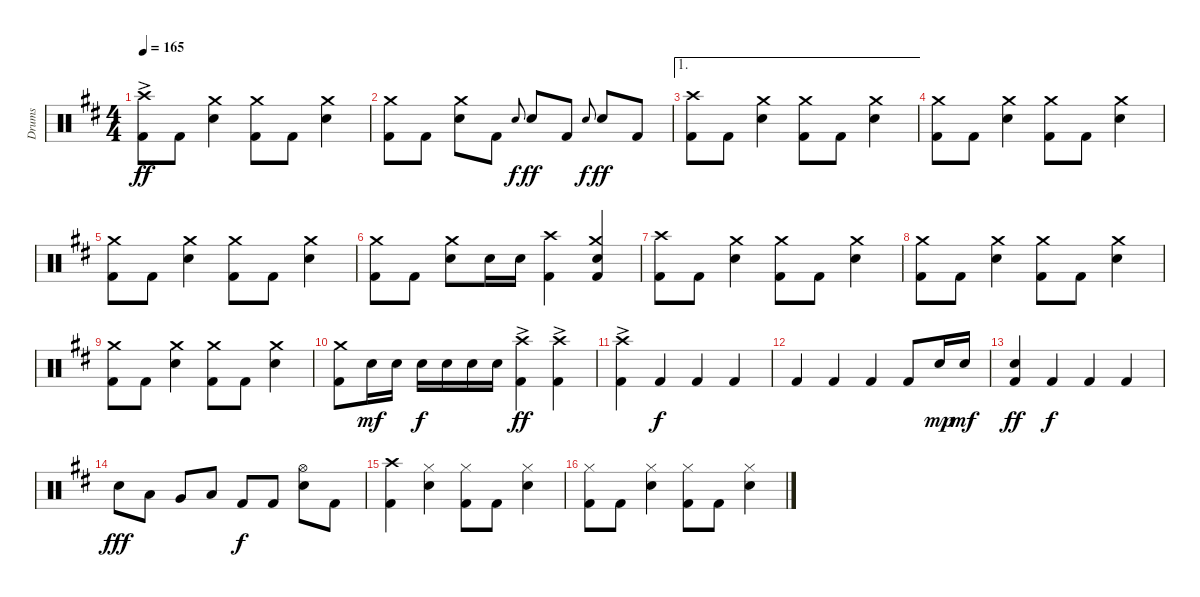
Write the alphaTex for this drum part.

\track ("Drums" "Drums") {instrument percussion}
\staff {score}
\articulation defaults
\ts (4 4)
\tempo 165
\clef neutral
\ks d
("Crash high (hit)"{ac} "Kick (hit) 2").8{dy ff} "Kick (hit) 2".8 ("Crash medium (hit)" "Electric Snare (hit)").4 ("Crash medium (hit)" "Kick (hit) 2").8 "Kick (hit) 2".8 ("Crash medium (hit)" "Electric Snare (hit)").4 |
("Crash medium (hit)" "Kick (hit) 2").8 "Kick (hit) 2".8 ("Crash medium (hit)" "Electric Snare (hit)").8 "Kick (hit) 2".8 "Electric Snare (hit)".8{gr onbeat dy f} "Electric Snare (hit)".8{dy ff} "Kick (hit) 2".8 "Electric Snare (hit)".8{gr onbeat dy f} "Electric Snare (hit)".8{dy ff} "Kick (hit) 2".8 |
\ae 1
("Crash high (hit)" "Kick (hit) 2").8 "Kick (hit) 2".8 ("Crash medium (hit)" "Electric Snare (hit)").4 ("Crash medium (hit)" "Kick (hit) 2").8 "Kick (hit) 2".8 ("Crash medium (hit)" "Electric Snare (hit)").4 |
("Crash medium (hit)" "Kick (hit) 2").8 "Kick (hit) 2".8 ("Crash medium (hit)" "Electric Snare (hit)").4 ("Crash medium (hit)" "Kick (hit) 2").8 "Kick (hit) 2".8 ("Crash medium (hit)" "Electric Snare (hit)").4 |
("Crash medium (hit)" "Kick (hit) 2").8 "Kick (hit) 2".8 ("Crash medium (hit)" "Electric Snare (hit)").4 ("Crash medium (hit)" "Kick (hit) 2").8 "Kick (hit) 2".8 ("Crash medium (hit)" "Electric Snare (hit)").4 |
("Crash medium (hit)" "Kick (hit) 2").8 "Kick (hit) 2".8 ("Crash medium (hit)" "Electric Snare (hit)").8 "Electric Snare (hit)".16 "Electric Snare (hit)".16 ("Crash high (hit)" "Kick (hit) 2").4 ("Crash medium (hit)" "Electric Snare (hit)" "Kick (hit) 2").4 |
("Crash high (hit)" "Kick (hit) 2").8 "Kick (hit) 2".8 ("Crash medium (hit)" "Electric Snare (hit)").4 ("Crash medium (hit)" "Kick (hit) 2").8 "Kick (hit) 2".8 ("Crash medium (hit)" "Electric Snare (hit)").4 |
("Crash medium (hit)" "Kick (hit) 2").8 "Kick (hit) 2".8 ("Crash medium (hit)" "Electric Snare (hit)").4 ("Crash medium (hit)" "Kick (hit) 2").8 "Kick (hit) 2".8 ("Crash medium (hit)" "Electric Snare (hit)").4 |
("Crash medium (hit)" "Kick (hit) 2").8 "Kick (hit) 2".8 ("Crash medium (hit)" "Electric Snare (hit)").4 ("Crash medium (hit)" "Kick (hit) 2").8 "Kick (hit) 2".8 ("Crash medium (hit)" "Electric Snare (hit)").4 |
("Crash medium (hit)" "Kick (hit) 2").8 "Electric Snare (hit)".16{dy mf} "Electric Snare (hit)".16 "Electric Snare (hit)".16{dy f} "Electric Snare (hit)".16 "Electric Snare (hit)".16 "Electric Snare (hit)".16 ("Crash high (hit)"{ac} "Kick (hit) 2").4{dy ff} ("Crash high (hit)"{ac} "Kick (hit) 2").4 |
("Crash high (hit)"{ac} "Kick (hit) 2").4 "Kick (hit) 2".4{dy f} "Kick (hit) 2".4 "Kick (hit) 2".4 |
"Kick (hit) 2".4 "Kick (hit) 2".4 "Kick (hit) 2".4 "Kick (hit) 2".8 "Electric Snare (hit)".16{dy mp} "Electric Snare (hit)".16{dy mf} |
("Electric Snare (hit)" "Kick (hit) 2").4{dy ff} "Kick (hit) 2".4{dy f} "Kick (hit) 2".4 "Kick (hit) 2".4 |
"Electric Snare (hit)".8{dy fff} "Low Tom (hit)".8 "Very Low Tom (hit)".8 "Low Floor Tom (hit)".8 "Kick (hit) 2".8{dy f} "Kick (hit) 2".8 ("Hi-Hat (open)" "Electric Snare (hit)").8 "Kick (hit) 2".8 |
("Crash high (hit)" "Kick (hit) 2").4 ("Hi-Hat (closed)" "Electric Snare (hit)").4 ("Hi-Hat (closed)" "Kick (hit) 2").8 "Kick (hit) 2".8 ("Hi-Hat (closed)" "Electric Snare (hit)").4 |
("Hi-Hat (closed)" "Kick (hit) 2").8 "Kick (hit) 2".8 ("Hi-Hat (closed)" "Electric Snare (hit)").4 ("Hi-Hat (closed)" "Kick (hit) 2").8 "Kick (hit) 2".8 ("Hi-Hat (closed)" "Electric Snare (hit)").4
